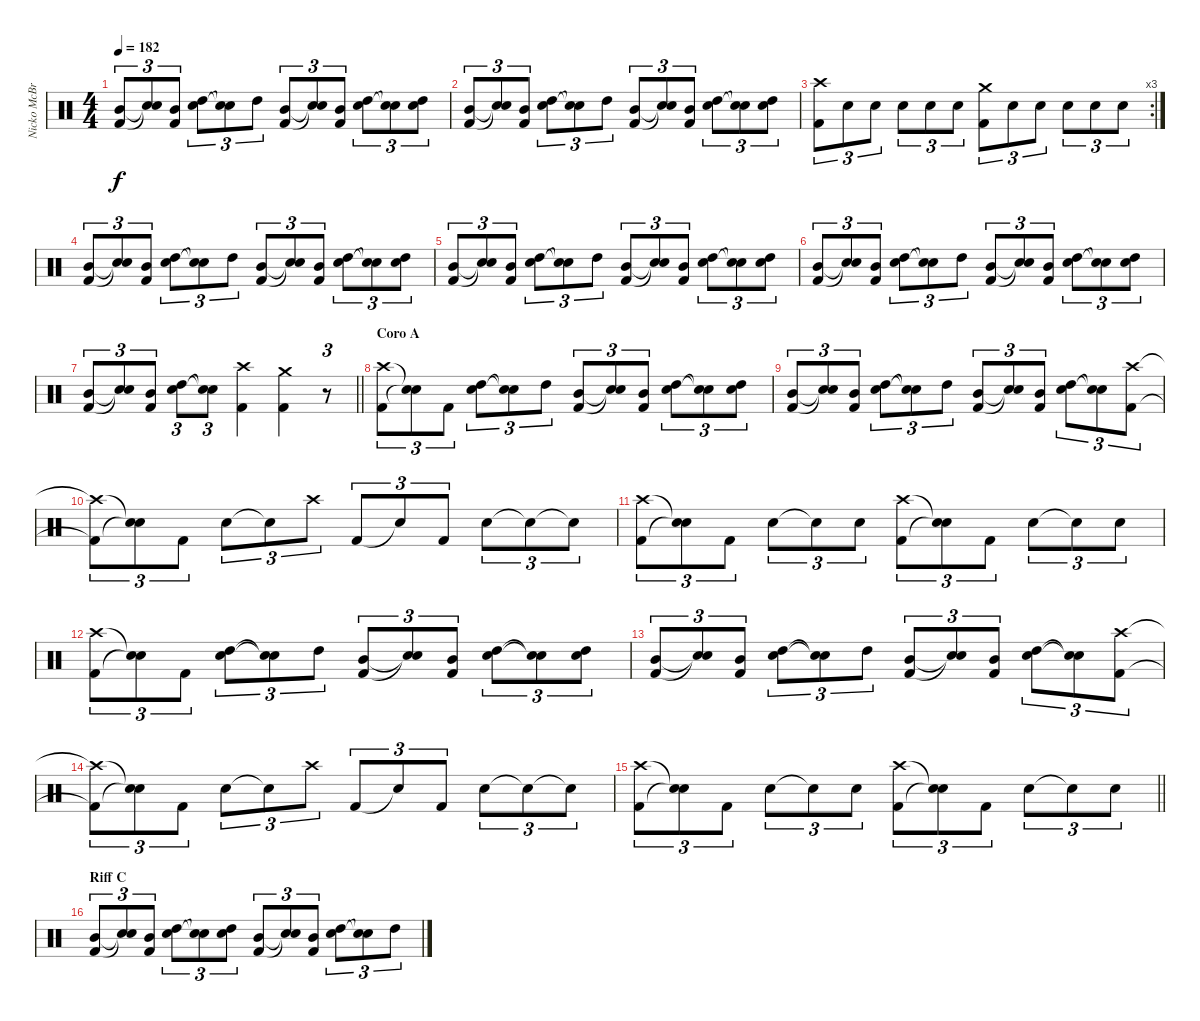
\track ("Nicko McBrain" "Nicko McBr") {instrument percussion}
\staff {score}
\articulation defaults
\ts (4 4)
\tempo 182
\clef neutral
\ks c
("Mid Tom (hit)" "Kick (hit) 2").8{tu (3 2) dy f} ("Snare (hit)"{t} "Snare (hit)"{t}).8{tu (3 2)} ("Mid Tom (hit)" "Kick (hit) 2").8{tu (3 2)} ("High Tom (hit)" "Snare (hit) 2").8{tu (3 2)} ("Snare (hit)"{t} "Snare (hit)"{t}).8{tu (3 2)} "High Tom (hit)".8{tu (3 2)} ("Mid Tom (hit)" "Kick (hit) 2").8{tu (3 2)} ("Snare (hit)"{t} "Snare (hit)"{t}).8{tu (3 2)} ("Mid Tom (hit)" "Kick (hit) 2").8{tu (3 2)} ("High Tom (hit)" "Snare (hit) 2").8{tu (3 2)} ("Snare (hit)"{t} "Snare (hit) 2"{t}).8{tu (3 2)} ("High Tom (hit)" "Snare (hit) 2").8{tu (3 2)} |
("Mid Tom (hit)" "Kick (hit) 2").8{tu (3 2)} ("Snare (hit)"{t} "Snare (hit)"{t}).8{tu (3 2)} ("Mid Tom (hit)" "Kick (hit) 2").8{tu (3 2)} ("High Tom (hit)" "Snare (hit) 2").8{tu (3 2)} ("Snare (hit)"{t} "Snare (hit)"{t}).8{tu (3 2)} "High Tom (hit)".8{tu (3 2)} ("Mid Tom (hit)" "Kick (hit) 2").8{tu (3 2)} ("Snare (hit)"{t} "Snare (hit)"{t}).8{tu (3 2)} ("Mid Tom (hit)" "Kick (hit) 2").8{tu (3 2)} ("High Tom (hit)" "Snare (hit) 2").8{tu (3 2)} ("Snare (hit)"{t} "Snare (hit)"{t}).8{tu (3 2)} ("High Tom (hit)" "Snare (hit) 2").8{tu (3 2)} |
\rc 3
("Kick (hit) 2" "Crash high (hit)").8{tu (3 2)} "Snare (hit) 2".8{tu (3 2)} "Snare (hit) 2".8{tu (3 2)} "Snare (hit) 2".8{tu (3 2)} "Snare (hit) 2".8{tu (3 2)} "Snare (hit) 2".8{tu (3 2)} ("Kick (hit) 2" "Crash medium (hit)").8{tu (3 2)} "Snare (hit) 2".8{tu (3 2)} "Snare (hit) 2".8{tu (3 2)} "Snare (hit) 2".8{tu (3 2)} "Snare (hit) 2".8{tu (3 2)} "Snare (hit) 2".8{tu (3 2)} |
("Mid Tom (hit)" "Kick (hit) 2").8{tu (3 2)} ("Snare (hit)"{t} "Snare (hit)"{t}).8{tu (3 2)} ("Mid Tom (hit)" "Kick (hit) 2").8{tu (3 2)} ("High Tom (hit)" "Snare (hit) 2").8{tu (3 2)} ("Snare (hit)"{t} "Snare (hit)"{t}).8{tu (3 2)} "High Tom (hit)".8{tu (3 2)} ("Mid Tom (hit)" "Kick (hit) 2").8{tu (3 2)} ("Snare (hit)"{t} "Snare (hit)"{t}).8{tu (3 2)} ("Mid Tom (hit)" "Kick (hit) 2").8{tu (3 2)} ("High Tom (hit)" "Snare (hit) 2").8{tu (3 2)} ("Snare (hit)"{t} "Snare (hit)"{t}).8{tu (3 2)} ("High Tom (hit)" "Snare (hit) 2").8{tu (3 2)} |
("Mid Tom (hit)" "Kick (hit) 2").8{tu (3 2)} ("Snare (hit)"{t} "Snare (hit)"{t}).8{tu (3 2)} ("Mid Tom (hit)" "Kick (hit) 2").8{tu (3 2)} ("High Tom (hit)" "Snare (hit) 2").8{tu (3 2)} ("Snare (hit)"{t} "Snare (hit)"{t}).8{tu (3 2)} "High Tom (hit)".8{tu (3 2)} ("Mid Tom (hit)" "Kick (hit) 2").8{tu (3 2)} ("Snare (hit)"{t} "Snare (hit)"{t}).8{tu (3 2)} ("Mid Tom (hit)" "Kick (hit) 2").8{tu (3 2)} ("High Tom (hit)" "Snare (hit) 2").8{tu (3 2)} ("Snare (hit)"{t} "Snare (hit)"{t}).8{tu (3 2)} ("High Tom (hit)" "Snare (hit) 2").8{tu (3 2)} |
("Mid Tom (hit)" "Kick (hit) 2").8{tu (3 2)} ("Snare (hit)"{t} "Snare (hit)"{t}).8{tu (3 2)} ("Mid Tom (hit)" "Kick (hit) 2").8{tu (3 2)} ("High Tom (hit)" "Snare (hit) 2").8{tu (3 2)} ("Snare (hit)"{t} "Snare (hit)"{t}).8{tu (3 2)} "High Tom (hit)".8{tu (3 2)} ("Mid Tom (hit)" "Kick (hit) 2").8{tu (3 2)} ("Snare (hit)"{t} "Snare (hit)"{t}).8{tu (3 2)} ("Mid Tom (hit)" "Kick (hit) 2").8{tu (3 2)} ("High Tom (hit)" "Snare (hit) 2").8{tu (3 2)} ("Snare (hit)"{t} "Snare (hit)"{t}).8{tu (3 2)} ("High Tom (hit)" "Snare (hit) 2").8{tu (3 2)} |
\barLineRight lightlight
("Mid Tom (hit)" "Kick (hit) 2").8{tu (3 2)} ("Snare (hit)"{t} "Snare (hit)"{t}).8{tu (3 2)} ("Mid Tom (hit)" "Kick (hit) 2").8{tu (3 2)} ("High Tom (hit)" "Snare (hit) 2").8{tu (3 2)} ("Snare (hit)"{t} "Snare (hit)"{t}).8{tu (3 2)} ("Crash high (hit)" "Kick (hit) 2").4 ("Crash medium (hit)" "Kick (hit) 2").4 r.8{tu (3 2)} |
\section ("" "Coro A")
("Kick (hit) 2" "Crash high (hit)").8{tu (3 2)} ("Snare (hit)"{t} "Snare (hit)"{t}).8{tu (3 2)} "Kick (hit) 2".8{tu (3 2)} ("High Tom (hit)" "Snare (hit) 2").8{tu (3 2)} ("Snare (hit)"{t} "Snare (hit)"{t}).8{tu (3 2)} "High Tom (hit)".8{tu (3 2)} ("Mid Tom (hit)" "Kick (hit) 2").8{tu (3 2)} ("Snare (hit)"{t} "Snare (hit)"{t}).8{tu (3 2)} ("Mid Tom (hit)" "Kick (hit) 2").8{tu (3 2)} ("High Tom (hit)" "Snare (hit) 2").8{tu (3 2)} ("Snare (hit)"{t} "Snare (hit)"{t}).8{tu (3 2)} ("High Tom (hit)" "Snare (hit) 2").8{tu (3 2)} |
("Mid Tom (hit)" "Kick (hit) 2").8{tu (3 2)} ("Snare (hit)"{t} "Snare (hit)"{t}).8{tu (3 2)} ("Mid Tom (hit)" "Kick (hit) 2").8{tu (3 2)} ("High Tom (hit)" "Snare (hit) 2").8{tu (3 2)} ("Snare (hit)"{t} "Snare (hit)"{t}).8{tu (3 2)} "High Tom (hit)".8{tu (3 2)} ("Mid Tom (hit)" "Kick (hit) 2").8{tu (3 2)} ("Snare (hit)"{t} "Snare (hit)"{t}).8{tu (3 2)} ("Mid Tom (hit)" "Kick (hit) 2").8{tu (3 2)} ("High Tom (hit)" "Snare (hit) 2").8{tu (3 2)} ("Snare (hit)"{t} "Snare (hit)"{t}).8{tu (3 2)} ("Kick (hit) 2" "Crash high (hit)").8{tu (3 2)} |
("Kick (hit) 2"{t} "Crash high (hit)"{t}).8{tu (3 2)} ("Snare (hit)"{t} "Snare (hit)"{t}).8{tu (3 2)} "Kick (hit) 2".8{tu (3 2)} "Snare (hit) 2".8{tu (3 2)} "Snare (hit)"{t}.8{tu (3 2)} "Crash high (hit)".8{tu (3 2)} "Kick (hit) 2".8{tu (3 2)} "Snare (hit)"{t}.8{tu (3 2)} "Kick (hit) 2".8{tu (3 2)} "Snare (hit) 2".8{tu (3 2)} "Snare (hit)"{t}.8{tu (3 2)} "Snare (hit)"{t}.8{tu (3 2)} |
("Kick (hit) 2" "Crash high (hit)").8{tu (3 2)} ("Snare (hit)"{t} "Snare (hit)"{t}).8{tu (3 2)} "Kick (hit) 2".8{tu (3 2)} "Snare (hit) 2".8{tu (3 2)} "Snare (hit)"{t}.8{tu (3 2)} "Snare (hit) 2".8{tu (3 2)} ("Kick (hit) 2" "Crash high (hit)").8{tu (3 2)} ("Snare (hit)"{t} "Snare (hit)"{t}).8{tu (3 2)} "Kick (hit) 2".8{tu (3 2)} "Snare (hit) 2".8{tu (3 2)} "Snare (hit)"{t}.8{tu (3 2)} "Snare (hit) 2".8{tu (3 2)} |
("Kick (hit) 2" "Crash high (hit)").8{tu (3 2)} ("Snare (hit)"{t} "Snare (hit)"{t}).8{tu (3 2)} "Kick (hit) 2".8{tu (3 2)} ("High Tom (hit)" "Snare (hit) 2").8{tu (3 2)} ("Snare (hit)"{t} "Snare (hit)"{t}).8{tu (3 2)} "High Tom (hit)".8{tu (3 2)} ("Mid Tom (hit)" "Kick (hit) 2").8{tu (3 2)} ("Snare (hit)"{t} "Snare (hit)"{t}).8{tu (3 2)} ("Mid Tom (hit)" "Kick (hit) 2").8{tu (3 2)} ("High Tom (hit)" "Snare (hit) 2").8{tu (3 2)} ("Snare (hit)"{t} "Snare (hit)"{t}).8{tu (3 2)} ("High Tom (hit)" "Snare (hit) 2").8{tu (3 2)} |
("Mid Tom (hit)" "Kick (hit) 2").8{tu (3 2)} ("Snare (hit)"{t} "Snare (hit)"{t}).8{tu (3 2)} ("Mid Tom (hit)" "Kick (hit) 2").8{tu (3 2)} ("High Tom (hit)" "Snare (hit) 2").8{tu (3 2)} ("Snare (hit)"{t} "Snare (hit)"{t}).8{tu (3 2)} "High Tom (hit)".8{tu (3 2)} ("Mid Tom (hit)" "Kick (hit) 2").8{tu (3 2)} ("Snare (hit)"{t} "Snare (hit)"{t}).8{tu (3 2)} ("Mid Tom (hit)" "Kick (hit) 2").8{tu (3 2)} ("High Tom (hit)" "Snare (hit) 2").8{tu (3 2)} ("Snare (hit)"{t} "Snare (hit)"{t}).8{tu (3 2)} ("Kick (hit) 2" "Crash high (hit)").8{tu (3 2)} |
("Kick (hit) 2"{t} "Crash high (hit)"{t}).8{tu (3 2)} ("Snare (hit)"{t} "Snare (hit)"{t}).8{tu (3 2)} "Kick (hit) 2".8{tu (3 2)} "Snare (hit) 2".8{tu (3 2)} "Snare (hit)"{t}.8{tu (3 2)} "Crash high (hit)".8{tu (3 2)} "Kick (hit) 2".8{tu (3 2)} "Snare (hit)"{t}.8{tu (3 2)} "Kick (hit) 2".8{tu (3 2)} "Snare (hit) 2".8{tu (3 2)} "Snare (hit)"{t}.8{tu (3 2)} "Snare (hit)"{t}.8{tu (3 2)} |
\barLineRight lightlight
("Kick (hit) 2" "Crash high (hit)").8{tu (3 2)} ("Snare (hit)"{t} "Snare (hit)"{t}).8{tu (3 2)} "Kick (hit) 2".8{tu (3 2)} "Snare (hit) 2".8{tu (3 2)} "Snare (hit)"{t}.8{tu (3 2)} "Snare (hit) 2".8{tu (3 2)} ("Kick (hit) 2" "Crash high (hit)").8{tu (3 2)} ("Snare (hit)"{t} "Snare (hit)"{t}).8{tu (3 2)} "Kick (hit) 2".8{tu (3 2)} "Snare (hit) 2".8{tu (3 2)} "Snare (hit)"{t}.8{tu (3 2)} "Snare (hit) 2".8{tu (3 2)} |
\section ("" "Riff C")
("Mid Tom (hit)" "Kick (hit) 2").8{tu (3 2)} ("Snare (hit)"{t} "Snare (hit)"{t}).8{tu (3 2)} ("Mid Tom (hit)" "Kick (hit) 2").8{tu (3 2)} ("High Tom (hit)" "Snare (hit) 2").8{tu (3 2)} ("Snare (hit)"{t} "Snare (hit)"{t}).8{tu (3 2)} ("High Tom (hit)" "Snare (hit) 2").8{tu (3 2)} ("Mid Tom (hit)" "Kick (hit) 2").8{tu (3 2)} ("Snare (hit)"{t} "Snare (hit)"{t}).8{tu (3 2)} ("Mid Tom (hit)" "Kick (hit) 2").8{tu (3 2)} ("High Tom (hit)" "Snare (hit) 2").8{tu (3 2)} ("Snare (hit)"{t} "Snare (hit)"{t}).8{tu (3 2)} "High Tom (hit)".8{tu (3 2)}
